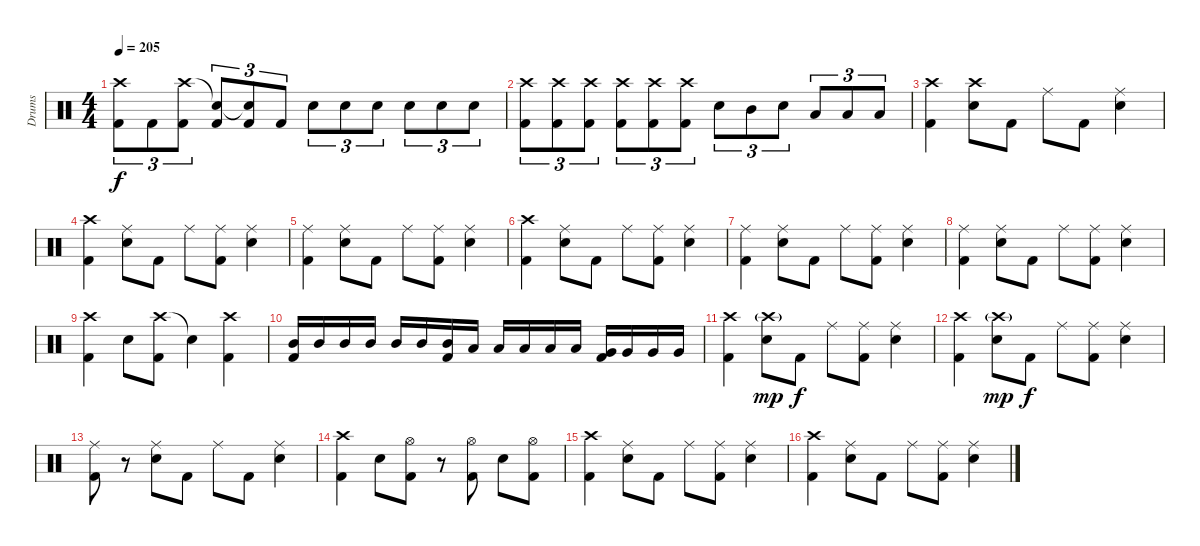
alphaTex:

\track ("Drums" "Drums") {instrument percussion}
\staff {score}
\articulation defaults
\ts (4 4)
\tempo 205
\clef neutral
\ks c
("Crash high (hit)" "Kick (hit) 2").8{tu (3 2) dy f} "Kick (hit) 2".8{tu (3 2)} ("Crash high (hit)" "Kick (hit) 2").8{tu (3 2)} ("Snare (hit)"{t} "Kick (hit) 2").8{tu (3 2)} ("Snare (hit)"{t} "Kick (hit) 2").8{tu (3 2)} "Kick (hit) 2".8{tu (3 2)} "Electric Snare (hit)".8{tu (3 2)} "Electric Snare (hit)".8{tu (3 2)} "Electric Snare (hit)".8{tu (3 2)} "Electric Snare (hit)".8{tu (3 2)} "Electric Snare (hit)".8{tu (3 2)} "Electric Snare (hit)".8{tu (3 2)} |
("Crash high (hit)" "Kick (hit) 2").8{tu (3 2)} ("Crash high (hit)" "Kick (hit) 2").8{tu (3 2)} ("Crash high (hit)" "Kick (hit) 2").8{tu (3 2)} ("Crash high (hit)" "Kick (hit) 2").8{tu (3 2)} ("Crash high (hit)" "Kick (hit) 2").8{tu (3 2)} ("Crash high (hit)" "Kick (hit) 2").8{tu (3 2)} "Electric Snare (hit)".8{tu (3 2)} "Mid Tom (hit)".8{tu (3 2)} "Electric Snare (hit)".8{tu (3 2)} "Low Tom (hit)".8{tu (3 2)} "Low Tom (hit)".8{tu (3 2)} "Low Tom (hit)".8{tu (3 2)} |
("Crash high (hit)" "Kick (hit) 2").4 ("Crash high (hit)" "Electric Snare (hit)").8 "Kick (hit) 2".8 "Ride (middle)".8 "Kick (hit) 2".8 ("Ride (middle)" "Electric Snare (hit)").4 |
("Crash high (hit)" "Kick (hit) 2").4 ("Ride (middle)" "Electric Snare (hit)").8 "Kick (hit) 2".8 "Ride (middle)".8 ("Ride (middle)" "Kick (hit) 2").8 ("Ride (middle)" "Electric Snare (hit)").4 |
("Ride (middle)" "Kick (hit) 2").4 ("Ride (middle)" "Electric Snare (hit)").8 "Kick (hit) 2".8 "Ride (middle)".8 ("Ride (middle)" "Kick (hit) 2").8 ("Ride (middle)" "Electric Snare (hit)").4 |
("Crash high (hit)" "Kick (hit) 2").4 ("Ride (middle)" "Electric Snare (hit)").8 "Kick (hit) 2".8 "Ride (middle)".8 ("Ride (middle)" "Kick (hit) 2").8 ("Ride (middle)" "Electric Snare (hit)").4 |
("Ride (middle)" "Kick (hit) 2").4 ("Ride (middle)" "Electric Snare (hit)").8 "Kick (hit) 2".8 "Ride (middle)".8 ("Ride (middle)" "Kick (hit) 2").8 ("Ride (middle)" "Electric Snare (hit)").4 |
("Ride (middle)" "Kick (hit) 2").4 ("Ride (middle)" "Electric Snare (hit)").8 "Kick (hit) 2".8 "Ride (middle)".8 ("Ride (middle)" "Kick (hit) 2").8 ("Ride (middle)" "Electric Snare (hit)").4 |
("Crash high (hit)" "Kick (hit) 2").4 "Electric Snare (hit)".8 ("Crash high (hit)" "Kick (hit) 2").8 "Snare (hit)"{t}.4 ("Crash high (hit)" "Kick (hit) 2").4 |
("Kick (hit) 2" "Mid Tom (hit)").16 "Mid Tom (hit)".16 "Mid Tom (hit)".16 "Mid Tom (hit)".16 "Mid Tom (hit)".16 "Mid Tom (hit)".16 ("Kick (hit) 2" "Mid Tom (hit)").16 "Low Tom (hit)".16 "Low Tom (hit)".16 "Low Tom (hit)".16 "Low Tom (hit)".16 "Low Tom (hit)".16 ("Kick (hit) 2" "Very Low Tom (hit)").16 "Very Low Tom (hit)".16 "Very Low Tom (hit)".16 "Very Low Tom (hit)".16 |
("Crash high (hit)" "Kick (hit) 2").4 ("Crash high (hit)"{g} "Electric Snare (hit)").8{dy mp} "Kick (hit) 2".8{dy f} "Ride (middle)".8 ("Ride (middle)" "Kick (hit) 2").8 ("Ride (middle)" "Electric Snare (hit)").4 |
("Crash high (hit)" "Kick (hit) 2").4 ("Crash high (hit)"{g} "Electric Snare (hit)").8{dy mp} "Kick (hit) 2".8{dy f} "Ride (middle)".8 ("Ride (middle)" "Kick (hit) 2").8 ("Ride (middle)" "Electric Snare (hit)").4 |
("Ride (middle)" "Kick (hit) 2").8 r.8 ("Ride (middle)" "Electric Snare (hit)").8 "Kick (hit) 2".8 "Ride (middle)".8 "Kick (hit) 2".8 ("Ride (middle)" "Electric Snare (hit)").4 |
("Crash high (hit)" "Kick (hit) 2").4 "Electric Snare (hit)".8 ("Hi-Hat (open)" "Kick (hit) 2").8 r.8 ("Hi-Hat (open)" "Kick (hit) 2").8 "Electric Snare (hit)".8 ("Hi-Hat (open)" "Kick (hit) 2").8 |
("Crash high (hit)" "Kick (hit) 2").4 ("Ride (middle)" "Electric Snare (hit)").8 "Kick (hit) 2".8 "Ride (middle)".8 ("Ride (middle)" "Kick (hit) 2").8 ("Ride (middle)" "Electric Snare (hit)").4 |
("Crash high (hit)" "Kick (hit) 2").4 ("Ride (middle)" "Electric Snare (hit)").8 "Kick (hit) 2".8 "Ride (middle)".8 ("Ride (middle)" "Kick (hit) 2").8 ("Ride (middle)" "Electric Snare (hit)").4
